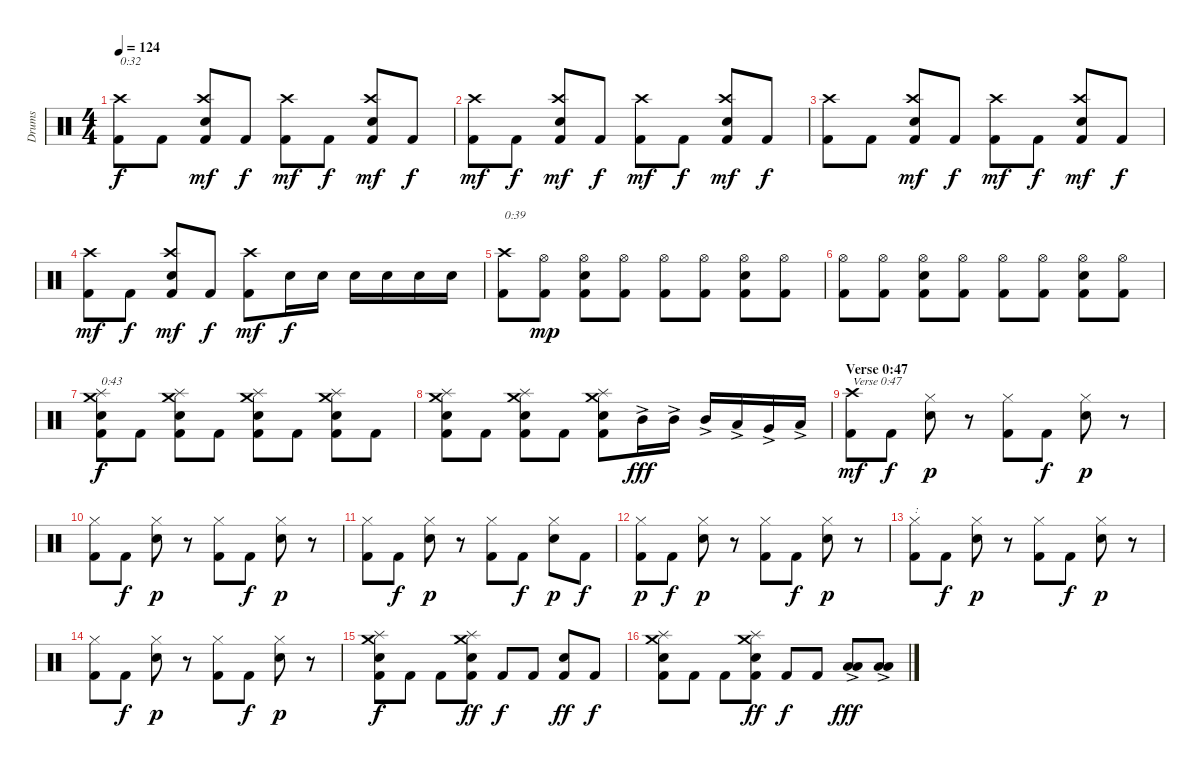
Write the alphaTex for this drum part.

\track ("Drums" "Drums") {instrument percussion}
\staff {score}
\articulation defaults
\ts (4 4)
\tempo 124
\clef neutral
\ks c
("Kick (hit) 2" "Crash high (hit)").8{txt "0:32" dy f} "Kick (hit) 2".8 ("Kick (hit) 2" "Electric Snare (hit)" "Crash high (hit)").8{dy mf} "Kick (hit) 2".8{dy f} ("Kick (hit) 2" "Crash high (hit)").8{dy mf} "Kick (hit) 2".8{dy f} ("Kick (hit) 2" "Electric Snare (hit)" "Crash high (hit)").8{dy mf} "Kick (hit) 2".8{dy f} |
("Kick (hit) 2" "Crash high (hit)").8{dy mf} "Kick (hit) 2".8{dy f} ("Kick (hit) 2" "Electric Snare (hit)" "Crash high (hit)").8{dy mf} "Kick (hit) 2".8{dy f} ("Kick (hit) 2" "Crash high (hit)").8{dy mf} "Kick (hit) 2".8{dy f} ("Kick (hit) 2" "Electric Snare (hit)" "Crash high (hit)").8{dy mf} "Kick (hit) 2".8{dy f} |
("Kick (hit) 2" "Crash high (hit)").8 "Kick (hit) 2".8 ("Kick (hit) 2" "Electric Snare (hit)" "Crash high (hit)").8{dy mf} "Kick (hit) 2".8{dy f} ("Kick (hit) 2" "Crash high (hit)").8{dy mf} "Kick (hit) 2".8{dy f} ("Kick (hit) 2" "Electric Snare (hit)" "Crash high (hit)").8{dy mf} "Kick (hit) 2".8{dy f} |
("Kick (hit) 2" "Crash high (hit)").8{dy mf} "Kick (hit) 2".8{dy f} ("Kick (hit) 2" "Electric Snare (hit)" "Crash high (hit)").8{dy mf} "Kick (hit) 2".8{dy f} ("Kick (hit) 2" "Crash high (hit)").8{dy mf} "Electric Snare (hit)".16{dy f} "Electric Snare (hit)".16 "Electric Snare (hit)".16 "Electric Snare (hit)".16 "Electric Snare (hit)".16 "Electric Snare (hit)".16 |
("Kick (hit) 2" "Crash high (hit)").8{txt "0:39"} ("Kick (hit) 2" "Hi-Hat (open)").8{dy mp} ("Kick (hit) 2" "Electric Snare (hit)" "Hi-Hat (open)").8 ("Kick (hit) 2" "Hi-Hat (open)").8 ("Kick (hit) 2" "Hi-Hat (open)").8 ("Kick (hit) 2" "Hi-Hat (open)").8 ("Kick (hit) 2" "Electric Snare (hit)" "Hi-Hat (open)").8 ("Kick (hit) 2" "Hi-Hat (open)").8 |
("Kick (hit) 2" "Hi-Hat (open)").8 ("Kick (hit) 2" "Hi-Hat (open)").8 ("Kick (hit) 2" "Electric Snare (hit)" "Hi-Hat (open)").8 ("Kick (hit) 2" "Hi-Hat (open)").8 ("Kick (hit) 2" "Hi-Hat (open)").8 ("Kick (hit) 2" "Hi-Hat (open)").8 ("Kick (hit) 2" "Electric Snare (hit)" "Hi-Hat (open)").8 ("Kick (hit) 2" "Hi-Hat (open)").8 |
("Kick (hit) 2" "Electric Snare (hit)" "Splash (hit)" "Crash medium (hit)").8{txt "0:43" dy f} "Kick (hit) 2".8 ("Kick (hit) 2" "Electric Snare (hit)" "Splash (hit)" "Crash medium (hit)").8 "Kick (hit) 2".8 ("Kick (hit) 2" "Electric Snare (hit)" "Splash (hit)" "Crash medium (hit)").8 "Kick (hit) 2".8 ("Kick (hit) 2" "Electric Snare (hit)" "Splash (hit)" "Crash medium (hit)").8 "Kick (hit) 2".8 |
("Kick (hit) 2" "Electric Snare (hit)" "Splash (hit)" "Crash medium (hit)").8 "Kick (hit) 2".8 ("Kick (hit) 2" "Electric Snare (hit)" "Splash (hit)" "Crash medium (hit)").8 "Kick (hit) 2".8 ("Kick (hit) 2" "Electric Snare (hit)" "Splash (hit)" "Crash medium (hit)").8 "Mid Tom (hit)"{ac}.16{dy fff} "Mid Tom (hit)"{ac}.16 "Mid Tom (hit)"{ac}.16 "Low Tom (hit)"{ac}.16 "Very Low Tom (hit)"{ac}.16 "Low Floor Tom (hit)"{ac}.16 |
\section ("" "Verse 0:47")
("Kick (hit) 2" "Crash high (hit)").8{txt "Verse 0:47" dy mf} "Kick (hit) 2".8{dy f} ("Electric Snare (hit)" "Hi-Hat (closed)").8{dy p} r.8 ("Kick (hit) 2" "Hi-Hat (closed)").8 "Kick (hit) 2".8{dy f} ("Electric Snare (hit)" "Hi-Hat (closed)").8{dy p} r.8 |
("Kick (hit) 2" "Hi-Hat (closed)").8 "Kick (hit) 2".8{dy f} ("Electric Snare (hit)" "Hi-Hat (closed)").8{dy p} r.8 ("Kick (hit) 2" "Hi-Hat (closed)").8 "Kick (hit) 2".8{dy f} ("Electric Snare (hit)" "Hi-Hat (closed)").8{dy p} r.8 |
("Kick (hit) 2" "Hi-Hat (closed)").8 "Kick (hit) 2".8{dy f} ("Electric Snare (hit)" "Hi-Hat (closed)").8{dy p} r.8 ("Kick (hit) 2" "Hi-Hat (closed)").8 "Kick (hit) 2".8{dy f} ("Electric Snare (hit)" "Hi-Hat (closed)").8{dy p} "Kick (hit) 2".8{dy f} |
("Kick (hit) 2" "Hi-Hat (closed)").8{dy p} "Kick (hit) 2".8{dy f} ("Electric Snare (hit)" "Hi-Hat (closed)").8{dy p} r.8 ("Kick (hit) 2" "Hi-Hat (closed)").8 "Kick (hit) 2".8{dy f} ("Electric Snare (hit)" "Hi-Hat (closed)").8{dy p} r.8 |
("Kick (hit) 2" "Hi-Hat (closed)").8{txt ":"} "Kick (hit) 2".8{dy f} ("Electric Snare (hit)" "Hi-Hat (closed)").8{dy p} r.8 ("Kick (hit) 2" "Hi-Hat (closed)").8 "Kick (hit) 2".8{dy f} ("Electric Snare (hit)" "Hi-Hat (closed)").8{dy p} r.8 |
("Kick (hit) 2" "Hi-Hat (closed)").8 "Kick (hit) 2".8{dy f} ("Electric Snare (hit)" "Hi-Hat (closed)").8{dy p} r.8 ("Kick (hit) 2" "Hi-Hat (closed)").8 "Kick (hit) 2".8{dy f} ("Electric Snare (hit)" "Hi-Hat (closed)").8{dy p} r.8 |
("Kick (hit) 2" "Electric Snare (hit)" "Splash (hit)" "Crash medium (hit)").8{dy f} "Kick (hit) 2".8 "Kick (hit) 2".8 ("Kick (hit) 2" "Electric Snare (hit)" "Splash (hit)" "Crash medium (hit)").8{dy ff} "Kick (hit) 2".8{dy f} "Kick (hit) 2".8 ("Kick (hit) 2" "Electric Snare (hit)").8{dy ff} "Kick (hit) 2".8{dy f} |
("Kick (hit) 2" "Electric Snare (hit)" "Splash (hit)" "Crash medium (hit)").8 "Kick (hit) 2".8 "Kick (hit) 2".8 ("Kick (hit) 2" "Electric Snare (hit)" "Splash (hit)" "Crash medium (hit)").8{dy ff} "Kick (hit) 2".8{dy f} "Kick (hit) 2".8 ("Low Tom (hit)"{ac} "Low Floor Tom (hit)"{ac}).8{dy fff} ("Low Tom (hit)"{ac} "Low Floor Tom (hit)"{ac}).8
